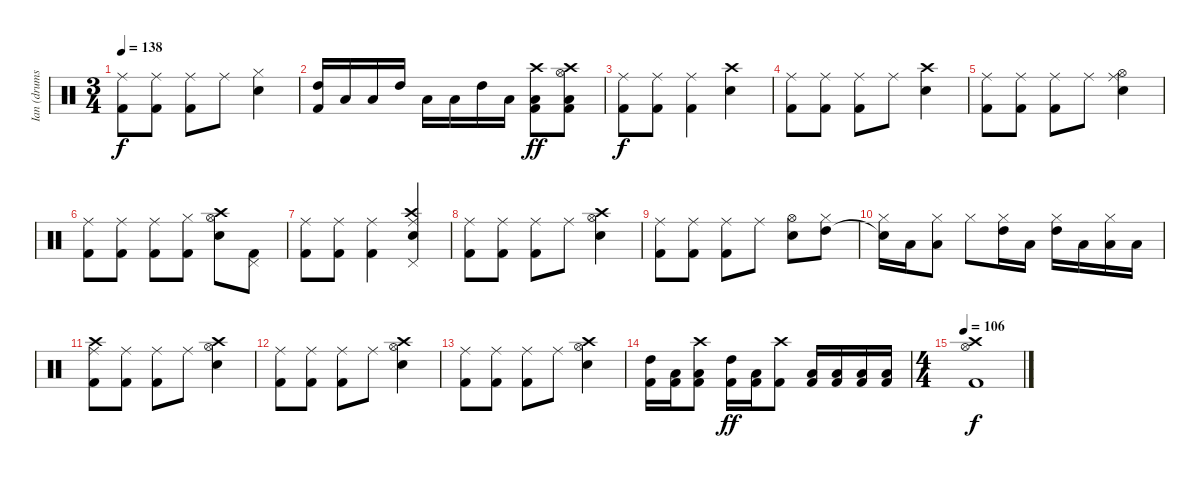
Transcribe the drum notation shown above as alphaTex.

\track ("Ian (drums)" "Ian (drums") {instrument percussion}
\staff {score}
\articulation defaults
\ts (3 4)
\tempo 138
\clef neutral
\ks c
("Kick (hit) 2" "Ride (middle)").8{dy f} ("Kick (hit) 2" "Ride (middle)").8 ("Kick (hit) 2" "Ride (middle)").8 "Ride (middle)".8 ("Snare (hit) 2" "Hi-Hat (closed)").4 |
("Kick (hit) 2" "High Tom (hit)").16 "Low Tom (hit)".16 "Low Floor Tom (hit)".16 "High Tom (hit)".16 "Low Tom (hit)".16 "Low Floor Tom (hit)".16 "High Tom (hit)".16 "Low Tom (hit)".16 ("Kick (hit) 2" "Low Floor Tom (hit)" "Crash high (hit)").8{dy ff} ("Kick (hit) 2" "Hi-Hat (open)" "Low Floor Tom (hit)" "Crash high (hit)").8 |
("Kick (hit) 2" "Ride (middle)").8{dy f} ("Kick (hit) 2" "Ride (middle)").8 ("Kick (hit) 2" "Ride (middle)").4 ("Snare (hit) 2" "Crash high (hit)").4 |
("Kick (hit) 2" "Ride (middle)").8 ("Kick (hit) 2" "Ride (middle)").8 ("Kick (hit) 2" "Ride (middle)").8 "Ride (middle)".8 ("Snare (hit) 2" "Crash high (hit)").4 |
("Kick (hit) 2" "Ride (middle)").8 ("Kick (hit) 2" "Ride (middle)").8 ("Kick (hit) 2" "Ride (middle)").8 "Ride (middle)".8 ("Snare (hit) 2" "Hi-Hat (open)" "Ride (middle)").4 |
("Kick (hit) 2" "Ride (middle)").8 ("Kick (hit) 2" "Ride (middle)").8 ("Kick (hit) 2" "Ride (middle)").8 ("Kick (hit) 2" "Hi-Hat (closed)").8 ("Snare (hit) 2" "Hi-Hat (open)" "Crash high (hit)").8 ("Kick (hit) 2" "Pedal Hi-Hat (hit)").8 |
("Kick (hit) 2" "Ride (middle)").8 ("Kick (hit) 2" "Ride (middle)").8 ("Kick (hit) 2" "Ride (middle)").4 ("Snare (hit) 2" "Pedal Hi-Hat (hit)" "Crash high (hit)" "Ride (middle)").4 |
("Kick (hit) 2" "Ride (middle)").8 ("Kick (hit) 2" "Ride (middle)").8 ("Kick (hit) 2" "Ride (middle)").8 "Ride (middle)".8 ("Snare (hit) 2" "Hi-Hat (open)" "Crash high (hit)").4 |
("Kick (hit) 2" "Ride (middle)").8 ("Kick (hit) 2" "Ride (middle)").8 ("Kick (hit) 2" "Ride (middle)").8 "Ride (middle)".8 ("Snare (hit) 2" "Hi-Hat (open)").8 ("Hi-Hat (closed)" "High Tom (hit)").8 |
("Hi-Hat (closed)" "Snare (hit)"{t}).16 "Low Tom (hit)".16 ("Low Floor Tom (hit)" "Hi-Hat (closed)").8 "Hi-Hat (closed)".8 ("Hi-Hat (closed)" "High Tom (hit)").16 "Low Tom (hit)".16 ("Hi-Hat (closed)" "High Tom (hit)").16 "Low Tom (hit)".16 ("Hi-Hat (closed)" "Low Tom (hit)").16 "Low Floor Tom (hit)".16 |
("Kick (hit) 2" "Crash high (hit)" "Ride (middle)").8 ("Kick (hit) 2" "Ride (middle)").8 ("Kick (hit) 2" "Ride (middle)").8 "Ride (middle)".8 ("Snare (hit) 2" "Hi-Hat (open)" "Crash high (hit)").4 |
("Kick (hit) 2" "Ride (middle)").8 ("Kick (hit) 2" "Ride (middle)").8 ("Kick (hit) 2" "Ride (middle)").8 "Ride (middle)".8 ("Snare (hit) 2" "Hi-Hat (open)" "Crash high (hit)").4 |
("Kick (hit) 2" "Ride (middle)").8 ("Kick (hit) 2" "Ride (middle)").8 ("Kick (hit) 2" "Ride (middle)").8 "Ride (middle)".8 ("Snare (hit) 2" "Hi-Hat (open)" "Crash high (hit)").4 |
("Kick (hit) 2" "High Tom (hit)").16 ("Kick (hit) 2" "Low Tom (hit)").16 ("Kick (hit) 2" "Low Floor Tom (hit)" "Crash high (hit)").8 ("Kick (hit) 2" "High Tom (hit)").16{dy ff} ("Kick (hit) 2" "Low Tom (hit)").16 ("Kick (hit) 2" "Crash high (hit)").8 ("Kick (hit) 2" "Low Floor Tom (hit)").16 ("Kick (hit) 2" "Low Floor Tom (hit)").16 ("Kick (hit) 2" "Low Floor Tom (hit)").16 ("Kick (hit) 2" "Low Floor Tom (hit)").16 |
\ts (4 4)
\tempo 106
("Kick (hit) 2" "Hi-Hat (open)" "Crash high (hit)").1{dy f}
